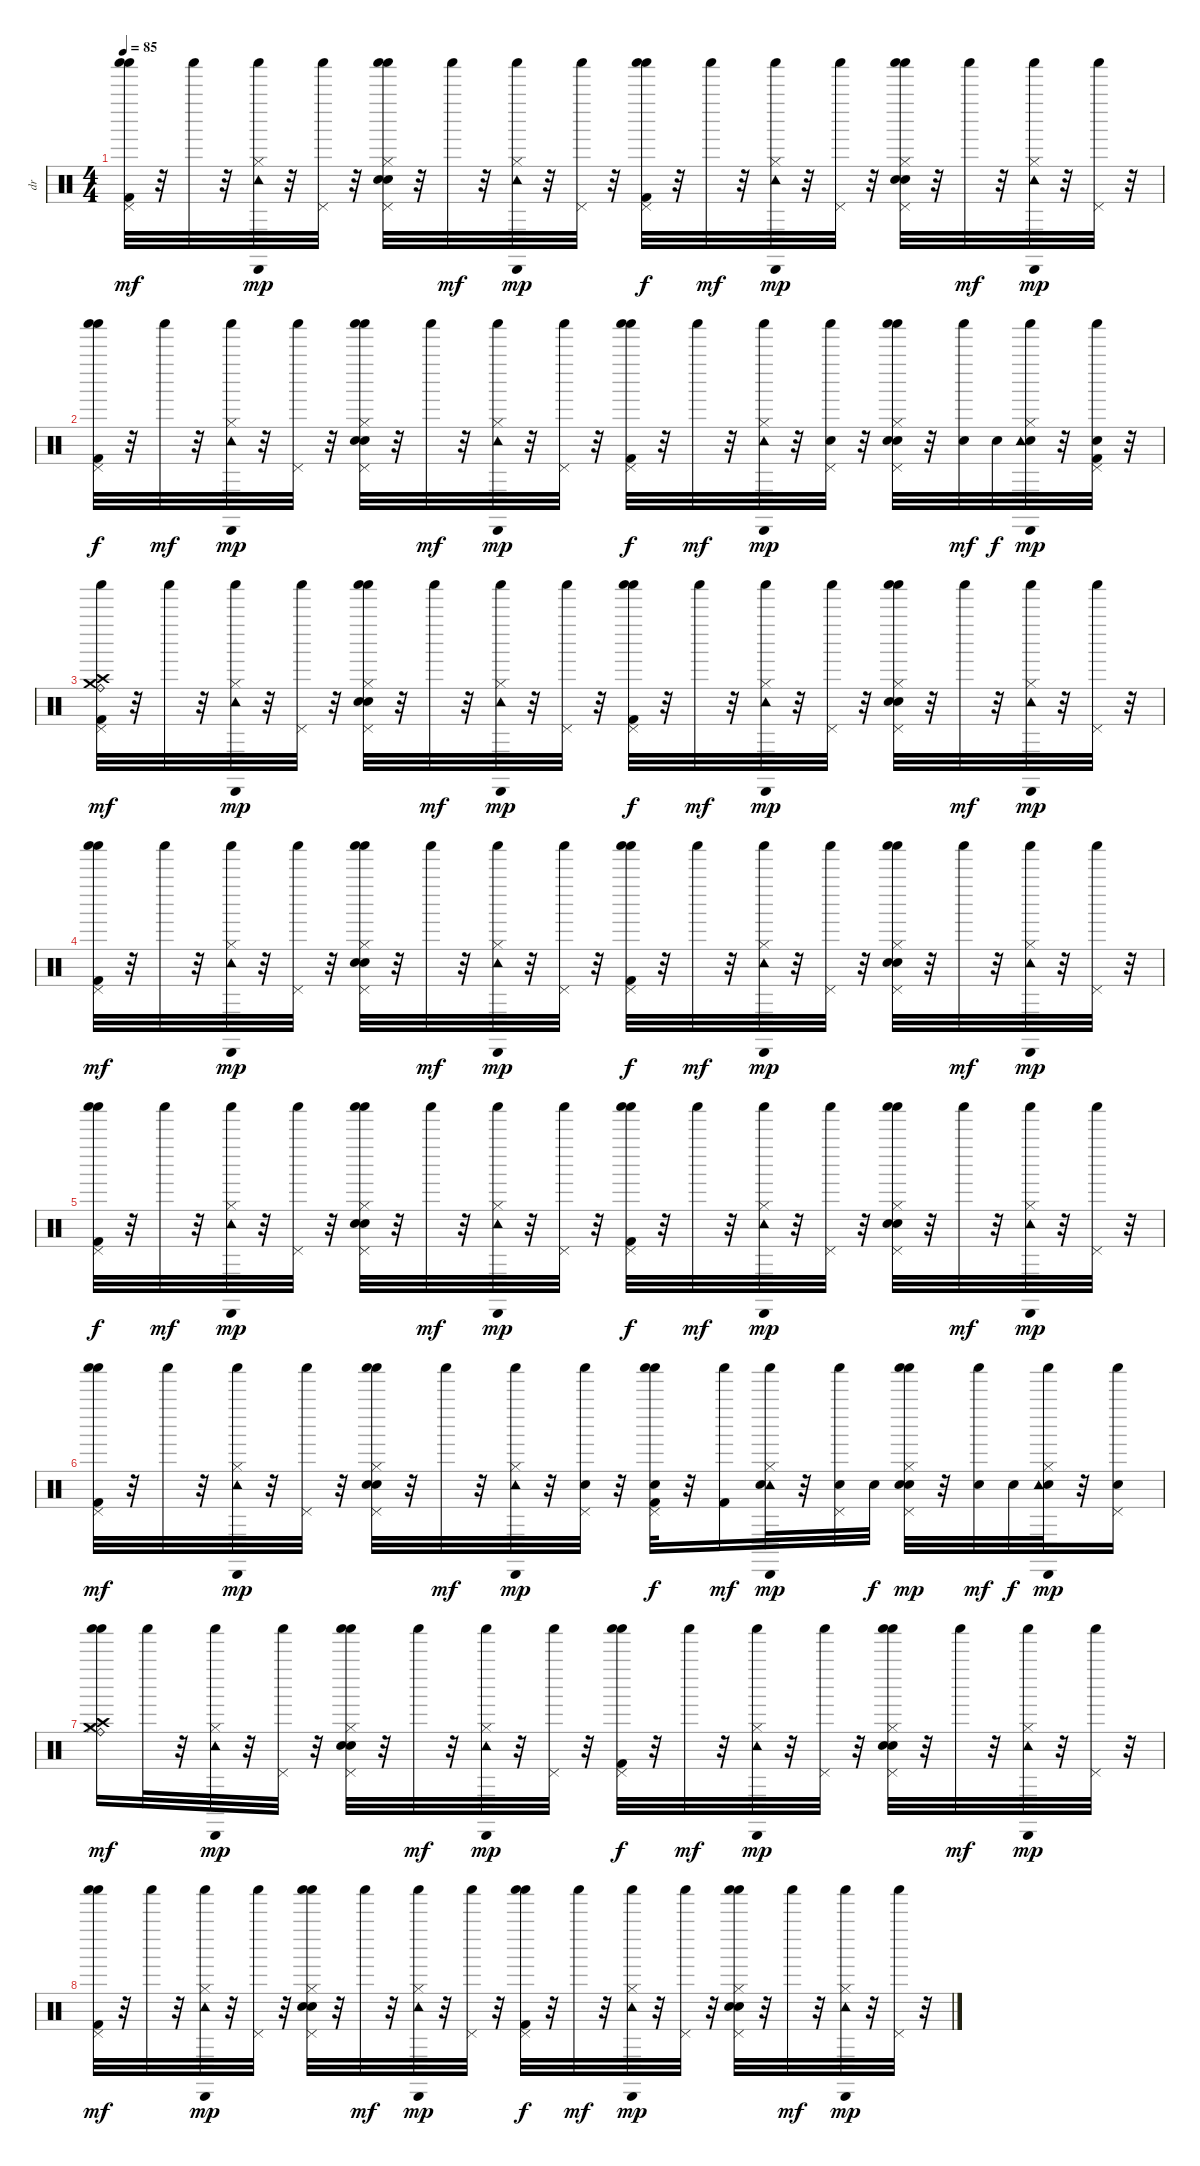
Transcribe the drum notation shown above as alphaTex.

\track ("dr" "dr") {instrument percussion}
\staff {score}
\articulation defaults
\ts (4 4)
\tempo 85
\clef neutral
\ks c
("Pedal Hi-Hat (hit)" "Shaker (hit)" "Shaker (hit)" "Kick (hit) 2").32{dy mf} r.32 "Shaker (hit)".32 r.32 ("Hi-Hat (closed)" "Cabasa (hit)" "Tambourine (hit)" "Shaker (hit)").32{dy mp} r.32 ("Pedal Hi-Hat (hit)" "Shaker (hit)").32 r.32 ("Electric Snare (hit)" "Pedal Hi-Hat (hit)" "Shaker (hit)" "Shaker (hit)" "Hi-Hat (closed)" "Snare (hit) 2").32 r.32 "Shaker (hit)".32{dy mf} r.32 ("Hi-Hat (closed)" "Tambourine (hit)" "Cabasa (hit)" "Shaker (hit)").32{dy mp} r.32 ("Pedal Hi-Hat (hit)" "Shaker (hit)").32 r.32 ("Pedal Hi-Hat (hit)" "Shaker (hit)" "Shaker (hit)" "Kick (hit) 2").32{dy f} r.32 "Shaker (hit)".32{dy mf} r.32 ("Hi-Hat (closed)" "Cabasa (hit)" "Tambourine (hit)" "Shaker (hit)").32{dy mp} r.32 ("Pedal Hi-Hat (hit)" "Shaker (hit)").32 r.32 ("Electric Snare (hit)" "Pedal Hi-Hat (hit)" "Shaker (hit)" "Shaker (hit)" "Hi-Hat (closed)" "Snare (hit) 2").32 r.32 "Shaker (hit)".32{dy mf} r.32 ("Hi-Hat (closed)" "Cabasa (hit)" "Tambourine (hit)" "Shaker (hit)").32{dy mp} r.32 ("Pedal Hi-Hat (hit)" "Shaker (hit)").32 r.32 |
("Pedal Hi-Hat (hit)" "Shaker (hit)" "Shaker (hit)" "Kick (hit) 2").32{dy f} r.32 "Shaker (hit)".32{dy mf} r.32 ("Hi-Hat (closed)" "Cabasa (hit)" "Tambourine (hit)" "Shaker (hit)").32{dy mp} r.32 ("Pedal Hi-Hat (hit)" "Shaker (hit)").32 r.32 ("Pedal Hi-Hat (hit)" "Shaker (hit)" "Shaker (hit)" "Hi-Hat (closed)" "Electric Snare (hit)" "Snare (hit) 2").32 r.32 "Shaker (hit)".32{dy mf} r.32 ("Hi-Hat (closed)" "Cabasa (hit)" "Tambourine (hit)" "Shaker (hit)").32{dy mp} r.32 ("Pedal Hi-Hat (hit)" "Shaker (hit)").32 r.32 ("Pedal Hi-Hat (hit)" "Shaker (hit)" "Shaker (hit)" "Kick (hit) 2").32{dy f} r.32 "Shaker (hit)".32{dy mf} r.32 ("Hi-Hat (closed)" "Cabasa (hit)" "Tambourine (hit)" "Shaker (hit)").32{dy mp} r.32 ("Pedal Hi-Hat (hit)" "Shaker (hit)" "Snare (hit) 2").32 r.32 ("Electric Snare (hit)" "Pedal Hi-Hat (hit)" "Shaker (hit)" "Shaker (hit)" "Hi-Hat (closed)" "Snare (hit) 2").32 r.32 ("Shaker (hit)" "Snare (hit) 2").32{dy mf} "Snare (hit) 2".32{dy f} ("Snare (hit) 2" "Hi-Hat (closed)" "Cabasa (hit)" "Tambourine (hit)" "Shaker (hit)").32{dy mp} r.32 ("Pedal Hi-Hat (hit)" "Shaker (hit)" "Kick (hit) 2" "Snare (hit) 2").32 r.32 |
("Kick (hit) 2" "Crash high (hit)" "Ride (bell)" "Crash medium (hit)" "Pedal Hi-Hat (hit)" "Shaker (hit)").32{dy mf} r.32 "Shaker (hit)".32 r.32 ("Hi-Hat (closed)" "Cabasa (hit)" "Tambourine (hit)" "Shaker (hit)").32{dy mp} r.32 ("Pedal Hi-Hat (hit)" "Shaker (hit)").32 r.32 ("Electric Snare (hit)" "Pedal Hi-Hat (hit)" "Shaker (hit)" "Shaker (hit)" "Hi-Hat (closed)" "Snare (hit) 2").32 r.32 "Shaker (hit)".32{dy mf} r.32 ("Hi-Hat (closed)" "Cabasa (hit)" "Tambourine (hit)" "Shaker (hit)").32{dy mp} r.32 ("Pedal Hi-Hat (hit)" "Shaker (hit)").32 r.32 ("Pedal Hi-Hat (hit)" "Shaker (hit)" "Shaker (hit)" "Kick (hit) 2").32{dy f} r.32 "Shaker (hit)".32{dy mf} r.32 ("Hi-Hat (closed)" "Cabasa (hit)" "Tambourine (hit)" "Shaker (hit)").32{dy mp} r.32 ("Pedal Hi-Hat (hit)" "Shaker (hit)").32 r.32 ("Electric Snare (hit)" "Pedal Hi-Hat (hit)" "Shaker (hit)" "Shaker (hit)" "Hi-Hat (closed)" "Snare (hit) 2").32 r.32 "Shaker (hit)".32{dy mf} r.32 ("Hi-Hat (closed)" "Cabasa (hit)" "Tambourine (hit)" "Shaker (hit)").32{dy mp} r.32 ("Pedal Hi-Hat (hit)" "Shaker (hit)").32 r.32 |
("Pedal Hi-Hat (hit)" "Shaker (hit)" "Shaker (hit)" "Kick (hit) 2").32{dy mf} r.32 "Shaker (hit)".32 r.32 ("Hi-Hat (closed)" "Cabasa (hit)" "Tambourine (hit)" "Shaker (hit)").32{dy mp} r.32 ("Pedal Hi-Hat (hit)" "Shaker (hit)").32 r.32 ("Electric Snare (hit)" "Pedal Hi-Hat (hit)" "Shaker (hit)" "Shaker (hit)" "Hi-Hat (closed)" "Snare (hit) 2").32 r.32 "Shaker (hit)".32{dy mf} r.32 ("Hi-Hat (closed)" "Cabasa (hit)" "Tambourine (hit)" "Shaker (hit)").32{dy mp} r.32 ("Pedal Hi-Hat (hit)" "Shaker (hit)").32 r.32 ("Pedal Hi-Hat (hit)" "Shaker (hit)" "Shaker (hit)" "Kick (hit) 2").32{dy f} r.32 "Shaker (hit)".32{dy mf} r.32 ("Hi-Hat (closed)" "Cabasa (hit)" "Tambourine (hit)" "Shaker (hit)").32{dy mp} r.32 ("Pedal Hi-Hat (hit)" "Shaker (hit)").32 r.32 ("Electric Snare (hit)" "Pedal Hi-Hat (hit)" "Shaker (hit)" "Shaker (hit)" "Hi-Hat (closed)" "Snare (hit) 2").32 r.32 "Shaker (hit)".32{dy mf} r.32 ("Hi-Hat (closed)" "Cabasa (hit)" "Tambourine (hit)" "Shaker (hit)").32{dy mp} r.32 ("Pedal Hi-Hat (hit)" "Shaker (hit)").32 r.32 |
("Pedal Hi-Hat (hit)" "Shaker (hit)" "Shaker (hit)" "Kick (hit) 2").32{dy f} r.32 "Shaker (hit)".32{dy mf} r.32 ("Hi-Hat (closed)" "Cabasa (hit)" "Tambourine (hit)" "Shaker (hit)").32{dy mp} r.32 ("Pedal Hi-Hat (hit)" "Shaker (hit)").32 r.32 ("Electric Snare (hit)" "Pedal Hi-Hat (hit)" "Shaker (hit)" "Shaker (hit)" "Hi-Hat (closed)" "Snare (hit) 2").32 r.32 "Shaker (hit)".32{dy mf} r.32 ("Hi-Hat (closed)" "Cabasa (hit)" "Tambourine (hit)" "Shaker (hit)").32{dy mp} r.32 ("Pedal Hi-Hat (hit)" "Shaker (hit)").32 r.32 ("Pedal Hi-Hat (hit)" "Shaker (hit)" "Shaker (hit)" "Kick (hit) 2").32{dy f} r.32 "Shaker (hit)".32{dy mf} r.32 ("Hi-Hat (closed)" "Cabasa (hit)" "Tambourine (hit)" "Shaker (hit)").32{dy mp} r.32 ("Pedal Hi-Hat (hit)" "Shaker (hit)").32 r.32 ("Electric Snare (hit)" "Pedal Hi-Hat (hit)" "Shaker (hit)" "Shaker (hit)" "Hi-Hat (closed)" "Snare (hit) 2").32 r.32 "Shaker (hit)".32{dy mf} r.32 ("Hi-Hat (closed)" "Cabasa (hit)" "Tambourine (hit)" "Shaker (hit)").32{dy mp} r.32 ("Pedal Hi-Hat (hit)" "Shaker (hit)").32 r.32 |
("Pedal Hi-Hat (hit)" "Shaker (hit)" "Shaker (hit)" "Kick (hit) 2").32{dy mf} r.32 "Shaker (hit)".32 r.32 ("Hi-Hat (closed)" "Cabasa (hit)" "Tambourine (hit)" "Shaker (hit)").32{dy mp} r.32 ("Pedal Hi-Hat (hit)" "Shaker (hit)").32 r.32 ("Electric Snare (hit)" "Pedal Hi-Hat (hit)" "Shaker (hit)" "Shaker (hit)" "Hi-Hat (closed)" "Snare (hit) 2").32 r.32 "Shaker (hit)".32{dy mf} r.32 ("Hi-Hat (closed)" "Cabasa (hit)" "Tambourine (hit)" "Shaker (hit)").32{dy mp} r.32 ("Shaker (hit)" "Pedal Hi-Hat (hit)" "Snare (hit) 2").32 r.32 ("Pedal Hi-Hat (hit)" "Shaker (hit)" "Shaker (hit)" "Kick (hit) 2" "Snare (hit) 2").32{dy f} r.32 ("Shaker (hit)" "Kick (hit) 2").16{dy mf} ("Hi-Hat (closed)" "Cabasa (hit)" "Tambourine (hit)" "Shaker (hit)" "Snare (hit) 2").32{dy mp} r.32 ("Pedal Hi-Hat (hit)" "Shaker (hit)" "Snare (hit) 2").32 "Snare (hit) 2".32{dy f} ("Electric Snare (hit)" "Pedal Hi-Hat (hit)" "Shaker (hit)" "Shaker (hit)" "Hi-Hat (closed)" "Snare (hit) 2").32{dy mp} r.32 ("Snare (hit) 2" "Shaker (hit)").32{dy mf} "Snare (hit) 2".32{dy f} ("Snare (hit) 2" "Hi-Hat (closed)" "Cabasa (hit)" "Tambourine (hit)" "Shaker (hit)").32{dy mp} r.32 ("Pedal Hi-Hat (hit)" "Shaker (hit)" "Snare (hit) 2").16 |
("Shaker (hit)" "Shaker (hit)" "Crash medium (hit)" "Ride (bell)" "Crash high (hit)" "Hi-Hat (closed)").16{dy mf} "Shaker (hit)".32 r.32 ("Hi-Hat (closed)" "Tambourine (hit)" "Cabasa (hit)" "Shaker (hit)").32{dy mp} r.32 ("Pedal Hi-Hat (hit)" "Shaker (hit)").32 r.32 ("Electric Snare (hit)" "Pedal Hi-Hat (hit)" "Shaker (hit)" "Shaker (hit)" "Hi-Hat (closed)" "Snare (hit) 2").32 r.32 "Shaker (hit)".32{dy mf} r.32 ("Hi-Hat (closed)" "Tambourine (hit)" "Cabasa (hit)" "Shaker (hit)").32{dy mp} r.32 ("Pedal Hi-Hat (hit)" "Shaker (hit)").32 r.32 ("Pedal Hi-Hat (hit)" "Shaker (hit)" "Shaker (hit)" "Kick (hit) 2").32{dy f} r.32 "Shaker (hit)".32{dy mf} r.32 ("Hi-Hat (closed)" "Tambourine (hit)" "Cabasa (hit)" "Shaker (hit)").32{dy mp} r.32 ("Pedal Hi-Hat (hit)" "Shaker (hit)").32 r.32 ("Electric Snare (hit)" "Pedal Hi-Hat (hit)" "Shaker (hit)" "Shaker (hit)" "Hi-Hat (closed)" "Snare (hit) 2").32 r.32 "Shaker (hit)".32{dy mf} r.32 ("Hi-Hat (closed)" "Tambourine (hit)" "Cabasa (hit)" "Shaker (hit)").32{dy mp} r.32 ("Pedal Hi-Hat (hit)" "Shaker (hit)").32 r.32 |
("Pedal Hi-Hat (hit)" "Shaker (hit)" "Shaker (hit)" "Kick (hit) 2").32{dy mf} r.32 "Shaker (hit)".32 r.32 ("Hi-Hat (closed)" "Tambourine (hit)" "Cabasa (hit)" "Shaker (hit)").32{dy mp} r.32 ("Pedal Hi-Hat (hit)" "Shaker (hit)").32 r.32 ("Electric Snare (hit)" "Pedal Hi-Hat (hit)" "Shaker (hit)" "Shaker (hit)" "Hi-Hat (closed)" "Snare (hit) 2").32 r.32 "Shaker (hit)".32{dy mf} r.32 ("Hi-Hat (closed)" "Tambourine (hit)" "Cabasa (hit)" "Shaker (hit)").32{dy mp} r.32 ("Pedal Hi-Hat (hit)" "Shaker (hit)").32 r.32 ("Pedal Hi-Hat (hit)" "Shaker (hit)" "Shaker (hit)" "Kick (hit) 2").32{dy f} r.32 "Shaker (hit)".32{dy mf} r.32 ("Hi-Hat (closed)" "Tambourine (hit)" "Cabasa (hit)" "Shaker (hit)").32{dy mp} r.32 ("Pedal Hi-Hat (hit)" "Shaker (hit)").32 r.32 ("Electric Snare (hit)" "Pedal Hi-Hat (hit)" "Shaker (hit)" "Shaker (hit)" "Hi-Hat (closed)" "Snare (hit) 2").32 r.32 "Shaker (hit)".32{dy mf} r.32 ("Hi-Hat (closed)" "Tambourine (hit)" "Cabasa (hit)" "Shaker (hit)").32{dy mp} r.32 ("Pedal Hi-Hat (hit)" "Shaker (hit)").32 r.32
